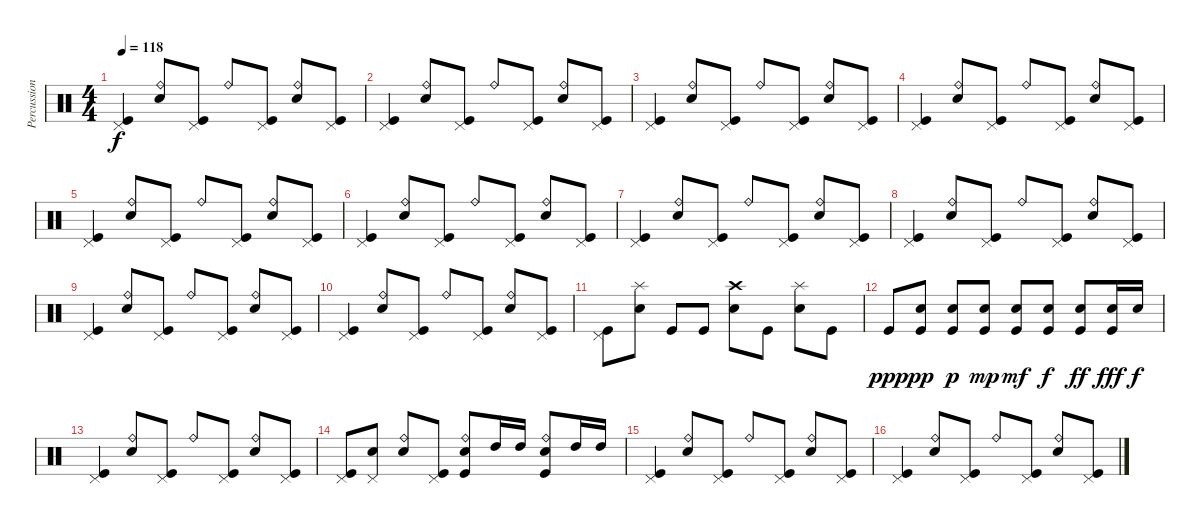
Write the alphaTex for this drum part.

\track ("Percussions" "Percussion") {instrument percussion}
\staff {score}
\articulation defaults
\ts (4 4)
\tempo 118
\clef neutral
\ks c
("Pedal Hi-Hat (hit)" "Kick (hit)").4{dy f} ("Ride (bell)" "Snare (hit) 2").8 ("Pedal Hi-Hat (hit)" "Kick (hit)").8 "Ride (bell)".8 ("Pedal Hi-Hat (hit)" "Kick (hit)").8 ("Ride (bell)" "Snare (hit) 2").8 ("Pedal Hi-Hat (hit)" "Kick (hit)").8 |
("Pedal Hi-Hat (hit)" "Kick (hit)").4 ("Ride (bell)" "Snare (hit) 2").8 ("Pedal Hi-Hat (hit)" "Kick (hit)").8 "Ride (bell)".8 ("Pedal Hi-Hat (hit)" "Kick (hit)").8 ("Ride (bell)" "Snare (hit) 2").8 ("Pedal Hi-Hat (hit)" "Kick (hit)").8 |
("Pedal Hi-Hat (hit)" "Kick (hit)").4 ("Ride (bell)" "Snare (hit) 2").8 ("Pedal Hi-Hat (hit)" "Kick (hit)").8 "Ride (bell)".8 ("Pedal Hi-Hat (hit)" "Kick (hit)").8 ("Ride (bell)" "Snare (hit) 2").8 ("Pedal Hi-Hat (hit)" "Kick (hit)").8 |
("Pedal Hi-Hat (hit)" "Kick (hit)").4 ("Ride (bell)" "Snare (hit) 2").8 ("Pedal Hi-Hat (hit)" "Kick (hit)").8 "Ride (bell)".8 ("Pedal Hi-Hat (hit)" "Kick (hit)").8 ("Ride (bell)" "Snare (hit) 2").8 ("Pedal Hi-Hat (hit)" "Kick (hit)").8 |
("Pedal Hi-Hat (hit)" "Kick (hit)").4 ("Ride (bell)" "Snare (hit) 2").8 ("Pedal Hi-Hat (hit)" "Kick (hit)").8 "Ride (bell)".8 ("Pedal Hi-Hat (hit)" "Kick (hit)").8 ("Ride (bell)" "Snare (hit) 2").8 ("Pedal Hi-Hat (hit)" "Kick (hit)").8 |
("Pedal Hi-Hat (hit)" "Kick (hit)").4 ("Ride (bell)" "Snare (hit) 2").8 ("Pedal Hi-Hat (hit)" "Kick (hit)").8 "Ride (bell)".8 ("Pedal Hi-Hat (hit)" "Kick (hit)").8 ("Ride (bell)" "Snare (hit) 2").8 ("Pedal Hi-Hat (hit)" "Kick (hit)").8 |
("Pedal Hi-Hat (hit)" "Kick (hit)").4 ("Ride (bell)" "Snare (hit) 2").8 ("Pedal Hi-Hat (hit)" "Kick (hit)").8 "Ride (bell)".8 ("Pedal Hi-Hat (hit)" "Kick (hit)").8 ("Ride (bell)" "Snare (hit) 2").8 ("Pedal Hi-Hat (hit)" "Kick (hit)").8 |
("Pedal Hi-Hat (hit)" "Kick (hit)").4 ("Ride (bell)" "Snare (hit) 2").8 ("Pedal Hi-Hat (hit)" "Kick (hit)").8 "Ride (bell)".8 ("Pedal Hi-Hat (hit)" "Kick (hit)").8 ("Ride (bell)" "Snare (hit) 2").8 ("Pedal Hi-Hat (hit)" "Kick (hit)").8 |
("Pedal Hi-Hat (hit)" "Kick (hit)").4 ("Ride (bell)" "Snare (hit) 2").8 ("Pedal Hi-Hat (hit)" "Kick (hit)").8 "Ride (bell)".8 ("Pedal Hi-Hat (hit)" "Kick (hit)").8 ("Ride (bell)" "Snare (hit) 2").8 ("Pedal Hi-Hat (hit)" "Kick (hit)").8 |
("Pedal Hi-Hat (hit)" "Kick (hit)").4 ("Ride (bell)" "Snare (hit) 2").8 ("Pedal Hi-Hat (hit)" "Kick (hit)").8 "Ride (bell)".8 ("Pedal Hi-Hat (hit)" "Kick (hit)").8 ("Ride (bell)" "Snare (hit) 2").8 ("Pedal Hi-Hat (hit)" "Kick (hit)").8 |
("Pedal Hi-Hat (hit)" "Kick (hit)").8 ("Splash (hit)" "Snare (hit) 2").8 "Kick (hit)".8 "Kick (hit)".8 ("Crash high (hit)" "Snare (hit) 2").8 "Kick (hit)".8 ("Splash (hit)" "Snare (hit) 2").8 "Kick (hit)".8 |
"Kick (hit)".8{dy ppp} ("Snare (hit) 2" "Kick (hit)").8{dy pp} ("Snare (hit) 2" "Kick (hit)").8{dy p} ("Snare (hit) 2" "Kick (hit)").8{dy mp} ("Snare (hit) 2" "Kick (hit)").8{dy mf} ("Snare (hit) 2" "Kick (hit)").8{dy f} ("Snare (hit) 2" "Kick (hit)").8{dy ff} ("Snare (hit) 2" "Kick (hit)").16{dy fff} "Snare (hit) 2".16{dy f} |
("Pedal Hi-Hat (hit)" "Kick (hit)").4 ("Ride (bell)" "Snare (hit) 2").8 ("Pedal Hi-Hat (hit)" "Kick (hit)").8 "Ride (bell)".8 ("Pedal Hi-Hat (hit)" "Kick (hit)").8 ("Ride (bell)" "Snare (hit) 2").8 ("Pedal Hi-Hat (hit)" "Kick (hit)").8 |
("Pedal Hi-Hat (hit)" "Kick (hit)").8 ("Pedal Hi-Hat (hit)" "Snare (hit) 2").8 ("Ride (bell)" "Snare (hit) 2").8 ("Pedal Hi-Hat (hit)" "Kick (hit)").8 ("Ride (bell)" "Snare (hit) 2" "Kick (hit)").8 "High Tom (hit)".16 "High Tom (hit)".16 ("Ride (bell)" "Snare (hit) 2" "Kick (hit)").8 "High Tom (hit)".16 "High Tom (hit)".16 |
("Pedal Hi-Hat (hit)" "Kick (hit)").4 ("Ride (bell)" "Snare (hit) 2").8 ("Pedal Hi-Hat (hit)" "Kick (hit)").8 "Ride (bell)".8 ("Pedal Hi-Hat (hit)" "Kick (hit)").8 ("Ride (bell)" "Snare (hit) 2").8 ("Pedal Hi-Hat (hit)" "Kick (hit)").8 |
("Pedal Hi-Hat (hit)" "Kick (hit)").4 ("Ride (bell)" "Snare (hit) 2").8 ("Pedal Hi-Hat (hit)" "Kick (hit)").8 "Ride (bell)".8 ("Pedal Hi-Hat (hit)" "Kick (hit)").8 ("Ride (bell)" "Snare (hit) 2").8 ("Pedal Hi-Hat (hit)" "Kick (hit)").8
